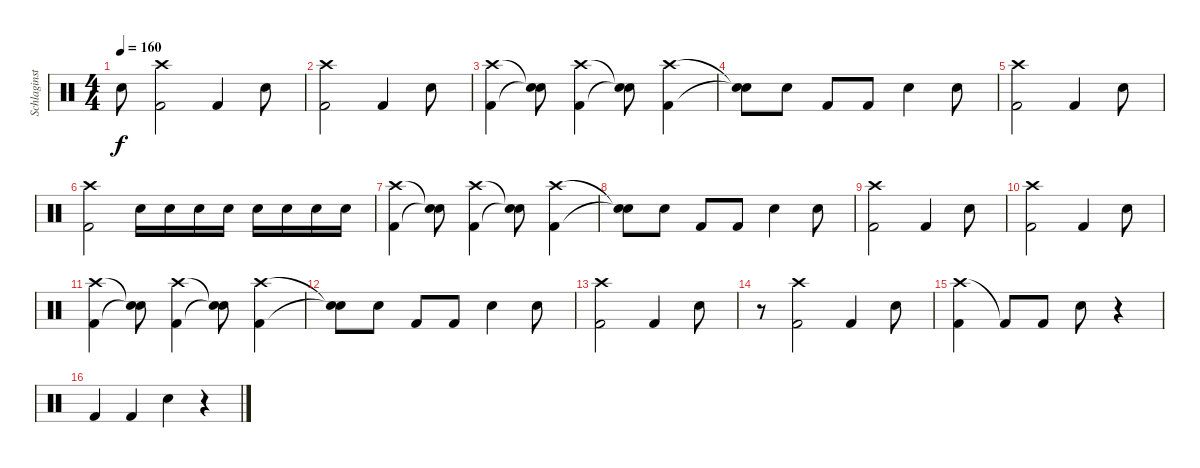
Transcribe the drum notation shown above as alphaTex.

\track ("Schlaginstrumente - Auswahl" "Schlaginst") {instrument percussion}
\staff {score}
\articulation defaults
\ts (4 4)
\tempo 160
\clef neutral
\ks c "Electric Snare (hit)".8{dy f}
("Crash high (hit)" "Kick (hit) 2").2 "Kick (hit) 2".4 "Electric Snare (hit)".8 |
("Crash high (hit)" "Kick (hit) 2").2 "Kick (hit) 2".4 "Electric Snare (hit)".8 |
("Crash high (hit)" "Kick (hit) 2").4 ("Snare (hit)"{t} "Snare (hit)"{t}).8 ("Crash high (hit)" "Kick (hit) 2").4 ("Snare (hit)"{t} "Snare (hit)"{t}).8 ("Crash high (hit)" "Kick (hit) 2").4 |
("Snare (hit)"{t} "Snare (hit)"{t}).8 "Electric Snare (hit)".8 "Kick (hit) 2".8 "Kick (hit) 2".8 "Electric Snare (hit)".4 "Electric Snare (hit)".8 |
("Crash high (hit)" "Kick (hit) 2").2 "Kick (hit) 2".4 "Electric Snare (hit)".8 |
("Crash high (hit)" "Kick (hit) 2").2 "Electric Snare (hit)".16 "Electric Snare (hit)".16 "Electric Snare (hit)".16 "Electric Snare (hit)".16 "Electric Snare (hit)".16 "Electric Snare (hit)".16 "Electric Snare (hit)".16 "Electric Snare (hit)".16 |
("Crash high (hit)" "Kick (hit) 2").4 ("Snare (hit)"{t} "Snare (hit)"{t}).8 ("Crash high (hit)" "Kick (hit) 2").4 ("Snare (hit)"{t} "Snare (hit)"{t}).8 ("Crash high (hit)" "Kick (hit) 2").4 |
("Snare (hit)"{t} "Snare (hit)"{t}).8 "Electric Snare (hit)".8 "Kick (hit) 2".8 "Kick (hit) 2".8 "Electric Snare (hit)".4 "Electric Snare (hit)".8 |
("Crash high (hit)" "Kick (hit) 2").2 "Kick (hit) 2".4 "Electric Snare (hit)".8 |
("Crash high (hit)" "Kick (hit) 2").2 "Kick (hit) 2".4 "Electric Snare (hit)".8 |
("Crash high (hit)" "Kick (hit) 2").4 ("Snare (hit)"{t} "Snare (hit)"{t}).8 ("Crash high (hit)" "Kick (hit) 2").4 ("Snare (hit)"{t} "Snare (hit)"{t}).8 ("Crash high (hit)" "Kick (hit) 2").4 |
("Snare (hit)"{t} "Snare (hit)"{t}).8 "Electric Snare (hit)".8 "Kick (hit) 2".8 "Kick (hit) 2".8 "Electric Snare (hit)".4 "Electric Snare (hit)".8 |
("Crash high (hit)" "Kick (hit) 2").2 "Kick (hit) 2".4 "Electric Snare (hit)".8 |
r.8 ("Crash high (hit)" "Kick (hit) 2").2 "Kick (hit) 2".4 "Electric Snare (hit)".8 |
("Crash high (hit)" "Kick (hit) 2").4 "Kick (hit) 2"{t}.8 "Kick (hit) 2".8 "Electric Snare (hit)".8 r.4 |
"Kick (hit) 2".4 "Kick (hit) 2".4 "Electric Snare (hit)".4 r.4
